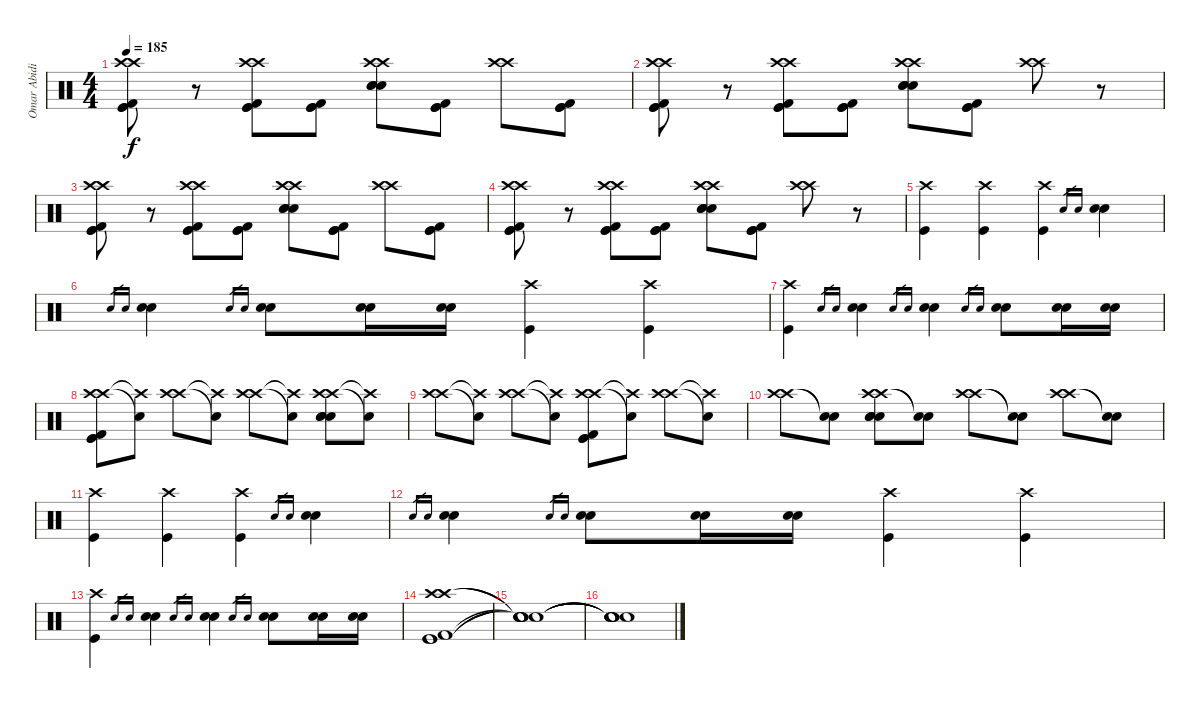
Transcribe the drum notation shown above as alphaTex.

\track ("Omar Abidi" "Omar Abidi") {instrument percussion}
\staff {score}
\articulation defaults
\ts (4 4)
\tempo 185
\clef neutral
\ks c
("Crash high (hit)" "Crash high (hit)" "Kick (hit) 2" "Kick (hit)" "Kick (hit)").8{dy f} r.8 ("Crash high (hit)" "Crash high (hit)" "Kick (hit) 2" "Kick (hit)" "Kick (hit)").8 ("Kick (hit) 2" "Kick (hit)" "Kick (hit)").8 ("Crash high (hit)" "Crash high (hit)" "Snare (hit) 2" "Electric Snare (hit)" "Snare (hit) 2").8 ("Kick (hit) 2" "Kick (hit)" "Kick (hit)").8 ("Crash high (hit)" "Crash high (hit)").8 ("Kick (hit) 2" "Kick (hit)" "Kick (hit)").8 |
("Crash high (hit)" "Crash high (hit)" "Kick (hit) 2" "Kick (hit)" "Kick (hit)").8 r.8 ("Crash high (hit)" "Crash high (hit)" "Kick (hit) 2" "Kick (hit)" "Kick (hit)").8 ("Kick (hit) 2" "Kick (hit)" "Kick (hit)").8 ("Crash high (hit)" "Crash high (hit)" "Snare (hit) 2" "Snare (hit) 2" "Electric Snare (hit)").8 ("Kick (hit) 2" "Kick (hit)" "Kick (hit)").8 ("Crash high (hit)" "Crash high (hit)").8 r.8 |
("Crash high (hit)" "Crash high (hit)" "Kick (hit) 2" "Kick (hit)" "Kick (hit)").8 r.8 ("Crash high (hit)" "Crash high (hit)" "Kick (hit) 2" "Kick (hit)" "Kick (hit)").8 ("Kick (hit) 2" "Kick (hit)" "Kick (hit)").8 ("Crash high (hit)" "Crash high (hit)" "Snare (hit) 2" "Electric Snare (hit)" "Snare (hit) 2").8 ("Kick (hit) 2" "Kick (hit)" "Kick (hit)").8 ("Crash high (hit)" "Crash high (hit)").8 ("Kick (hit) 2" "Kick (hit)" "Kick (hit)").8 |
("Crash high (hit)" "Crash high (hit)" "Kick (hit) 2" "Kick (hit)" "Kick (hit)").8 r.8 ("Crash high (hit)" "Crash high (hit)" "Kick (hit) 2" "Kick (hit)" "Kick (hit)").8 ("Kick (hit) 2" "Kick (hit)" "Kick (hit)").8 ("Crash high (hit)" "Crash high (hit)" "Snare (hit) 2" "Snare (hit) 2" "Electric Snare (hit)").8 ("Kick (hit) 2" "Kick (hit)" "Kick (hit)").8 ("Crash high (hit)" "Crash high (hit)").8 r.8 |
("Crash high (hit)" "Kick (hit)").4 ("Crash high (hit)" "Kick (hit)").4 ("Crash high (hit)" "Kick (hit)").4 "Electric Snare (hit)".16{gr} "Electric Snare (hit)".16{gr} ("Electric Snare (hit)" "Electric Snare (hit)").4 |
"Electric Snare (hit)".16{gr} "Electric Snare (hit)".16{gr} ("Electric Snare (hit)" "Electric Snare (hit)").4 "Electric Snare (hit)".16{gr} "Electric Snare (hit)".16{gr} ("Electric Snare (hit)" "Electric Snare (hit)").8 ("Electric Snare (hit)" "Electric Snare (hit)").16 ("Electric Snare (hit)" "Electric Snare (hit)").16 ("Crash high (hit)" "Kick (hit)").4 ("Crash high (hit)" "Kick (hit)").4 |
("Crash high (hit)" "Kick (hit)").4 "Electric Snare (hit)".16{gr} "Electric Snare (hit)".16{gr} ("Electric Snare (hit)" "Electric Snare (hit)").4 "Electric Snare (hit)".16{gr} "Electric Snare (hit)".16{gr} ("Electric Snare (hit)" "Electric Snare (hit)").4 "Electric Snare (hit)".16{gr} "Electric Snare (hit)".16{gr} ("Electric Snare (hit)" "Electric Snare (hit)").8 ("Electric Snare (hit)" "Electric Snare (hit)").16 ("Electric Snare (hit)" "Electric Snare (hit)").16 |
("Crash high (hit)" "Crash high (hit)" "Kick (hit) 2" "Kick (hit)" "Kick (hit)").8 ("Crash high (hit)"{t} "Snare (hit)"{t}).8 ("Crash high (hit)" "Crash high (hit)").8 ("Crash high (hit)"{t} "Snare (hit)"{t}).8 ("Crash high (hit)" "Crash high (hit)").8 ("Crash high (hit)"{t} "Snare (hit)"{t}).8 ("Crash high (hit)" "Crash high (hit)" "Electric Snare (hit)" "Snare (hit) 2" "Snare (hit) 2").8 ("Crash high (hit)"{t} "Snare (hit)"{t}).8 |
("Crash high (hit)" "Crash high (hit)").8 ("Crash high (hit)"{t} "Snare (hit)"{t}).8 ("Crash high (hit)" "Crash high (hit)").8 ("Crash high (hit)"{t} "Snare (hit)"{t}).8 ("Crash high (hit)" "Crash high (hit)" "Kick (hit)" "Kick (hit) 2" "Kick (hit)").8 ("Crash high (hit)"{t} "Snare (hit)"{t}).8 ("Crash high (hit)" "Crash high (hit)").8 ("Crash high (hit)"{t} "Snare (hit)"{t}).8 |
("Crash high (hit)" "Crash high (hit)").8 ("Snare (hit)"{t} "Snare (hit)"{t}).8 ("Crash high (hit)" "Crash high (hit)" "Electric Snare (hit)" "Snare (hit) 2" "Snare (hit) 2").8 ("Snare (hit)"{t} "Snare (hit)"{t}).8 ("Crash high (hit)" "Crash high (hit)").8 ("Snare (hit)"{t} "Snare (hit)"{t}).8 ("Crash high (hit)" "Crash high (hit)").8 ("Snare (hit)"{t} "Snare (hit)"{t}).8 |
("Crash high (hit)" "Kick (hit)").4 ("Crash high (hit)" "Kick (hit)").4 ("Crash high (hit)" "Kick (hit)").4 "Electric Snare (hit)".16{gr} "Electric Snare (hit)".16{gr} ("Electric Snare (hit)" "Electric Snare (hit)").4 |
"Electric Snare (hit)".16{gr} "Electric Snare (hit)".16{gr} ("Electric Snare (hit)" "Electric Snare (hit)").4 "Electric Snare (hit)".16{gr} "Electric Snare (hit)".16{gr} ("Electric Snare (hit)" "Electric Snare (hit)").8 ("Electric Snare (hit)" "Electric Snare (hit)").16 ("Electric Snare (hit)" "Electric Snare (hit)").16 ("Crash high (hit)" "Kick (hit)").4 ("Crash high (hit)" "Kick (hit)").4 |
("Crash high (hit)" "Kick (hit)").4 "Electric Snare (hit)".16{gr} "Electric Snare (hit)".16{gr} ("Electric Snare (hit)" "Electric Snare (hit)").4 "Electric Snare (hit)".16{gr} "Electric Snare (hit)".16{gr} ("Electric Snare (hit)" "Electric Snare (hit)").4 "Electric Snare (hit)".16{gr} "Electric Snare (hit)".16{gr} ("Electric Snare (hit)" "Electric Snare (hit)").8 ("Electric Snare (hit)" "Electric Snare (hit)").16 ("Electric Snare (hit)" "Electric Snare (hit)").16 |
("Crash high (hit)" "Crash high (hit)" "Kick (hit) 2" "Kick (hit)" "Kick (hit)").1{volume 0} |
("Snare (hit)"{t} "Snare (hit)"{t} "Snare (hit)"{t} "Snare (hit)"{t} "Snare (hit)"{t}).1 |
("Snare (hit)"{t} "Snare (hit)"{t} "Snare (hit)"{t} "Snare (hit)"{t} "Snare (hit)"{t}).1
